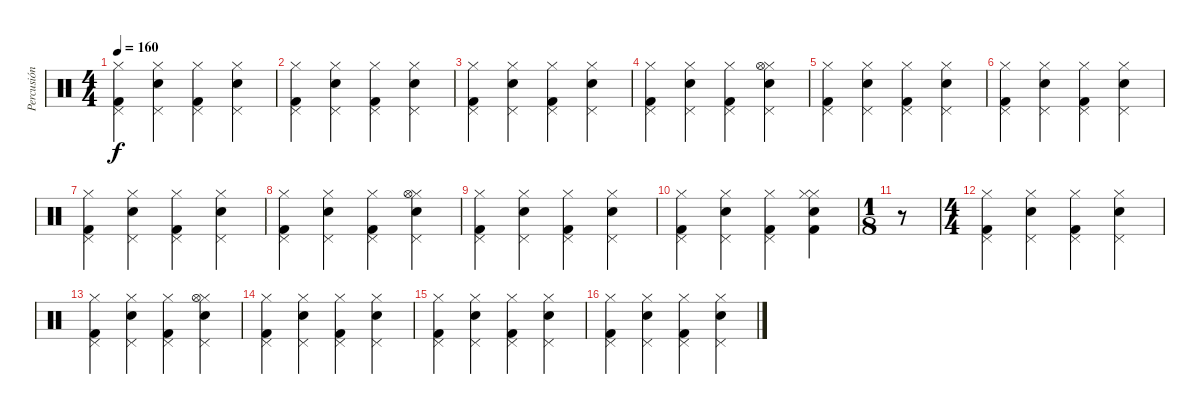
\track ("Percusión" "Percusión") {instrument percussion}
\staff {score}
\articulation defaults
\ts (4 4)
\tempo 160
\clef neutral
\ks c
("Hi-Hat (closed)" "Kick (hit) 2" "Pedal Hi-Hat (hit)").4{dy f} ("Hi-Hat (closed)" "Snare (hit) 2" "Pedal Hi-Hat (hit)").4 ("Hi-Hat (closed)" "Kick (hit) 2" "Pedal Hi-Hat (hit)").4 ("Hi-Hat (closed)" "Snare (hit) 2" "Pedal Hi-Hat (hit)").4 |
("Hi-Hat (closed)" "Kick (hit) 2" "Pedal Hi-Hat (hit)").4 ("Hi-Hat (closed)" "Snare (hit) 2" "Pedal Hi-Hat (hit)").4 ("Hi-Hat (closed)" "Kick (hit) 2" "Pedal Hi-Hat (hit)").4 ("Hi-Hat (closed)" "Snare (hit) 2" "Pedal Hi-Hat (hit)").4 |
("Hi-Hat (closed)" "Kick (hit) 2" "Pedal Hi-Hat (hit)").4 ("Hi-Hat (closed)" "Snare (hit) 2" "Pedal Hi-Hat (hit)").4 ("Hi-Hat (closed)" "Kick (hit) 2" "Pedal Hi-Hat (hit)").4 ("Hi-Hat (closed)" "Snare (hit) 2" "Pedal Hi-Hat (hit)").4 |
("Hi-Hat (closed)" "Kick (hit) 2" "Pedal Hi-Hat (hit)").4 ("Hi-Hat (closed)" "Snare (hit) 2" "Pedal Hi-Hat (hit)").4 ("Hi-Hat (closed)" "Kick (hit) 2" "Pedal Hi-Hat (hit)").4 ("Hi-Hat (closed)" "Snare (hit) 2" "Pedal Hi-Hat (hit)" "Hi-Hat (open)").4 |
("Hi-Hat (closed)" "Kick (hit) 2" "Pedal Hi-Hat (hit)").4 ("Hi-Hat (closed)" "Snare (hit) 2" "Pedal Hi-Hat (hit)").4 ("Hi-Hat (closed)" "Kick (hit) 2" "Pedal Hi-Hat (hit)").4 ("Hi-Hat (closed)" "Snare (hit) 2" "Pedal Hi-Hat (hit)").4 |
("Hi-Hat (closed)" "Kick (hit) 2" "Pedal Hi-Hat (hit)").4 ("Hi-Hat (closed)" "Snare (hit) 2" "Pedal Hi-Hat (hit)").4 ("Hi-Hat (closed)" "Kick (hit) 2" "Pedal Hi-Hat (hit)").4 ("Hi-Hat (closed)" "Snare (hit) 2" "Pedal Hi-Hat (hit)").4 |
("Hi-Hat (closed)" "Kick (hit) 2" "Pedal Hi-Hat (hit)").4 ("Hi-Hat (closed)" "Snare (hit) 2" "Pedal Hi-Hat (hit)").4 ("Hi-Hat (closed)" "Kick (hit) 2" "Pedal Hi-Hat (hit)").4 ("Hi-Hat (closed)" "Snare (hit) 2" "Pedal Hi-Hat (hit)").4 |
("Hi-Hat (closed)" "Kick (hit) 2" "Pedal Hi-Hat (hit)").4 ("Hi-Hat (closed)" "Snare (hit) 2" "Pedal Hi-Hat (hit)").4 ("Hi-Hat (closed)" "Kick (hit) 2" "Pedal Hi-Hat (hit)").4 ("Hi-Hat (closed)" "Snare (hit) 2" "Pedal Hi-Hat (hit)" "Hi-Hat (open)").4 |
("Hi-Hat (closed)" "Kick (hit) 2" "Pedal Hi-Hat (hit)").4 ("Hi-Hat (closed)" "Snare (hit) 2" "Pedal Hi-Hat (hit)").4 ("Hi-Hat (closed)" "Kick (hit) 2" "Pedal Hi-Hat (hit)").4 ("Hi-Hat (closed)" "Snare (hit) 2" "Pedal Hi-Hat (hit)").4 |
("Hi-Hat (closed)" "Kick (hit) 2" "Pedal Hi-Hat (hit)").4 ("Hi-Hat (closed)" "Snare (hit) 2" "Pedal Hi-Hat (hit)").4 ("Hi-Hat (closed)" "Kick (hit) 2" "Pedal Hi-Hat (hit)").4 ("Hi-Hat (closed)" "Snare (hit) 2" "Kick (hit) 2" "Hi-Hat (closed)").4 |
\ts (1 8)
r.8 |
\ts (4 4)
("Hi-Hat (closed)" "Kick (hit) 2" "Pedal Hi-Hat (hit)").4 ("Hi-Hat (closed)" "Snare (hit) 2" "Pedal Hi-Hat (hit)").4 ("Hi-Hat (closed)" "Kick (hit) 2" "Pedal Hi-Hat (hit)").4 ("Hi-Hat (closed)" "Snare (hit) 2" "Pedal Hi-Hat (hit)").4 |
("Hi-Hat (closed)" "Kick (hit) 2" "Pedal Hi-Hat (hit)").4 ("Hi-Hat (closed)" "Snare (hit) 2" "Pedal Hi-Hat (hit)").4 ("Hi-Hat (closed)" "Kick (hit) 2" "Pedal Hi-Hat (hit)").4 ("Hi-Hat (closed)" "Snare (hit) 2" "Pedal Hi-Hat (hit)" "Hi-Hat (open)").4 |
("Hi-Hat (closed)" "Kick (hit) 2" "Pedal Hi-Hat (hit)").4 ("Hi-Hat (closed)" "Snare (hit) 2" "Pedal Hi-Hat (hit)").4 ("Hi-Hat (closed)" "Kick (hit) 2" "Pedal Hi-Hat (hit)").4 ("Hi-Hat (closed)" "Snare (hit) 2" "Pedal Hi-Hat (hit)").4 |
("Hi-Hat (closed)" "Kick (hit) 2" "Pedal Hi-Hat (hit)").4 ("Hi-Hat (closed)" "Snare (hit) 2" "Pedal Hi-Hat (hit)").4 ("Hi-Hat (closed)" "Kick (hit) 2" "Pedal Hi-Hat (hit)").4 ("Hi-Hat (closed)" "Snare (hit) 2" "Pedal Hi-Hat (hit)").4 |
("Hi-Hat (closed)" "Kick (hit) 2" "Pedal Hi-Hat (hit)").4 ("Hi-Hat (closed)" "Snare (hit) 2" "Pedal Hi-Hat (hit)").4 ("Hi-Hat (closed)" "Kick (hit) 2" "Pedal Hi-Hat (hit)").4 ("Hi-Hat (closed)" "Snare (hit) 2" "Pedal Hi-Hat (hit)").4
